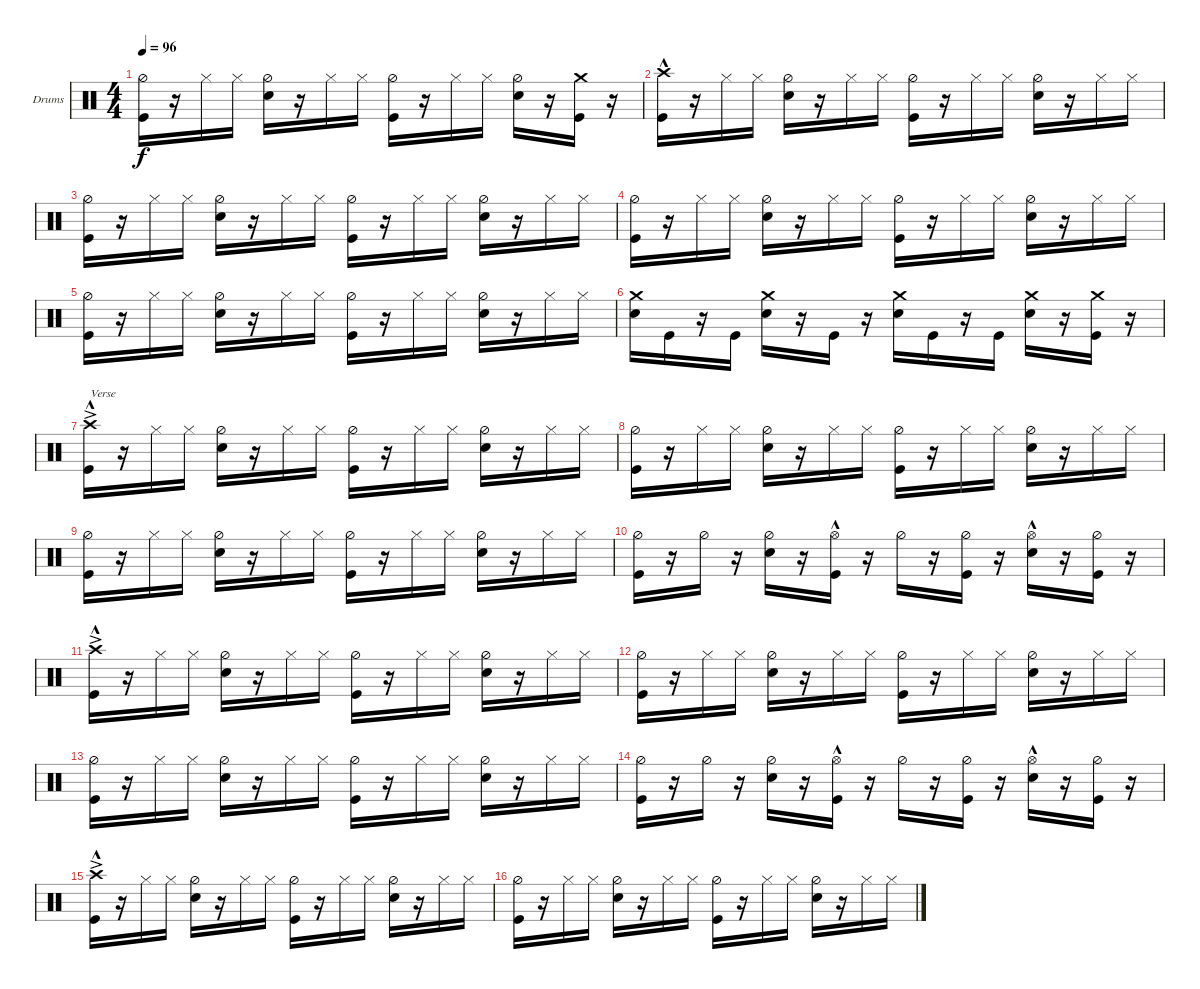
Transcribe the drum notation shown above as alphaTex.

\defaultSystemsLayout 4
\bracketExtendMode groupsimilarinstruments
\firstSystemTrackNameOrientation horizontal
\otherSystemsTrackNameOrientation horizontal
\track ("Stefan Schwarzmann" "Drums") {instrument percussion}
\staff {score}
\articulation defaults
\ts (4 4)
\tempo 96
\clef neutral
\ks c
("Kick (hit)" "Hi-Hat (half)").16{dy f} r.16 "Hi-Hat (closed)".16 "Hi-Hat (closed)".16 ("Snare (hit) 2" "Hi-Hat (half)").16 r.16 "Hi-Hat (closed)".16 "Hi-Hat (closed)".16 ("Kick (hit)" "Hi-Hat (half)").16 r.16 "Hi-Hat (closed)".16 "Hi-Hat (closed)".16 ("Snare (hit) 2" "Hi-Hat (half)").16 r.16 ("Crash medium (hit)" "Kick (hit)").16 r.16 |
("Kick (hit)" "Crash high (hit)"{hac}).16 r.16 "Hi-Hat (closed)".16 "Hi-Hat (closed)".16 ("Snare (hit) 2" "Hi-Hat (half)").16 r.16 "Hi-Hat (closed)".16 "Hi-Hat (closed)".16 ("Kick (hit)" "Hi-Hat (half)").16 r.16 "Hi-Hat (closed)".16 "Hi-Hat (closed)".16 ("Snare (hit) 2" "Hi-Hat (half)").16 r.16 "Hi-Hat (closed)".16 "Hi-Hat (closed)".16 |
("Kick (hit)" "Hi-Hat (half)").16 r.16 "Hi-Hat (closed)".16 "Hi-Hat (closed)".16 ("Snare (hit) 2" "Hi-Hat (half)").16 r.16 "Hi-Hat (closed)".16 "Hi-Hat (closed)".16 ("Kick (hit)" "Hi-Hat (half)").16 r.16 "Hi-Hat (closed)".16 "Hi-Hat (closed)".16 ("Snare (hit) 2" "Hi-Hat (half)").16 r.16 "Hi-Hat (closed)".16 "Hi-Hat (closed)".16 |
("Kick (hit)" "Hi-Hat (half)").16 r.16 "Hi-Hat (closed)".16 "Hi-Hat (closed)".16 ("Snare (hit) 2" "Hi-Hat (half)").16 r.16 "Hi-Hat (closed)".16 "Hi-Hat (closed)".16 ("Kick (hit)" "Hi-Hat (half)").16 r.16 "Hi-Hat (closed)".16 "Hi-Hat (closed)".16 ("Snare (hit) 2" "Hi-Hat (half)").16 r.16 "Hi-Hat (closed)".16 "Hi-Hat (closed)".16 |
("Kick (hit)" "Hi-Hat (half)").16 r.16 "Hi-Hat (closed)".16 "Hi-Hat (closed)".16 ("Snare (hit) 2" "Hi-Hat (half)").16 r.16 "Hi-Hat (closed)".16 "Hi-Hat (closed)".16 ("Kick (hit)" "Hi-Hat (half)").16 r.16 "Hi-Hat (closed)".16 "Hi-Hat (closed)".16 ("Snare (hit) 2" "Hi-Hat (half)").16 r.16 "Hi-Hat (closed)".16 "Hi-Hat (closed)".16 |
("Snare (hit) 2" "Crash medium (hit)").16 "Kick (hit)".16 r.16 "Kick (hit)".16 ("Snare (hit) 2" "Crash medium (hit)").16 r.16 "Kick (hit)".16 r.16 ("Snare (hit) 2" "Crash medium (hit)").16 "Kick (hit)".16 r.16 "Kick (hit)".16 ("Snare (hit) 2" "Crash medium (hit)").16 r.16 ("Kick (hit)" "Crash medium (hit)").16 r.16 |
("Kick (hit)"{ac} "Crash high (hit)"{hac}).16{txt "Verse"} r.16 "Hi-Hat (closed)".16 "Hi-Hat (closed)".16 ("Snare (hit) 2" "Hi-Hat (half)").16 r.16 "Hi-Hat (closed)".16 "Hi-Hat (closed)".16 ("Kick (hit)" "Hi-Hat (half)").16 r.16 "Hi-Hat (closed)".16 "Hi-Hat (closed)".16 ("Snare (hit) 2" "Hi-Hat (half)").16 r.16 "Hi-Hat (closed)".16 "Hi-Hat (closed)".16 |
("Kick (hit)" "Hi-Hat (half)").16 r.16 "Hi-Hat (closed)".16 "Hi-Hat (closed)".16 ("Snare (hit) 2" "Hi-Hat (half)").16 r.16 "Hi-Hat (closed)".16 "Hi-Hat (closed)".16 ("Kick (hit)" "Hi-Hat (half)").16 r.16 "Hi-Hat (closed)".16 "Hi-Hat (closed)".16 ("Snare (hit) 2" "Hi-Hat (half)").16 r.16 "Hi-Hat (closed)".16 "Hi-Hat (closed)".16 |
("Kick (hit)" "Hi-Hat (half)").16 r.16 "Hi-Hat (closed)".16 "Hi-Hat (closed)".16 ("Snare (hit) 2" "Hi-Hat (half)").16 r.16 "Hi-Hat (closed)".16 "Hi-Hat (closed)".16 ("Kick (hit)" "Hi-Hat (half)").16 r.16 "Hi-Hat (closed)".16 "Hi-Hat (closed)".16 ("Snare (hit) 2" "Hi-Hat (half)").16 r.16 "Hi-Hat (closed)".16 "Hi-Hat (closed)".16 |
("Kick (hit)" "Hi-Hat (half)").16 r.16 "Hi-Hat (half)".16 r.16 ("Snare (hit) 2" "Hi-Hat (half)").16 r.16 ("Kick (hit)" "Hi-Hat (open)"{hac}).16 r.16 "Hi-Hat (half)".16 r.16 ("Hi-Hat (half)" "Kick (hit)").16 r.16 ("Snare (hit) 2" "Hi-Hat (open)"{hac}).16 r.16 ("Hi-Hat (half)" "Kick (hit)").16 r.16 |
("Kick (hit)"{ac} "Crash high (hit)"{hac}).16 r.16 "Hi-Hat (closed)".16 "Hi-Hat (closed)".16 ("Snare (hit) 2" "Hi-Hat (half)").16 r.16 "Hi-Hat (closed)".16 "Hi-Hat (closed)".16 ("Kick (hit)" "Hi-Hat (half)").16 r.16 "Hi-Hat (closed)".16 "Hi-Hat (closed)".16 ("Snare (hit) 2" "Hi-Hat (half)").16 r.16 "Hi-Hat (closed)".16 "Hi-Hat (closed)".16 |
("Kick (hit)" "Hi-Hat (half)").16 r.16 "Hi-Hat (closed)".16 "Hi-Hat (closed)".16 ("Snare (hit) 2" "Hi-Hat (half)").16 r.16 "Hi-Hat (closed)".16 "Hi-Hat (closed)".16 ("Kick (hit)" "Hi-Hat (half)").16 r.16 "Hi-Hat (closed)".16 "Hi-Hat (closed)".16 ("Snare (hit) 2" "Hi-Hat (half)").16 r.16 "Hi-Hat (closed)".16 "Hi-Hat (closed)".16 |
("Kick (hit)" "Hi-Hat (half)").16 r.16 "Hi-Hat (closed)".16 "Hi-Hat (closed)".16 ("Snare (hit) 2" "Hi-Hat (half)").16 r.16 "Hi-Hat (closed)".16 "Hi-Hat (closed)".16 ("Kick (hit)" "Hi-Hat (half)").16 r.16 "Hi-Hat (closed)".16 "Hi-Hat (closed)".16 ("Snare (hit) 2" "Hi-Hat (half)").16 r.16 "Hi-Hat (closed)".16 "Hi-Hat (closed)".16 |
("Kick (hit)" "Hi-Hat (half)").16 r.16 "Hi-Hat (half)".16 r.16 ("Snare (hit) 2" "Hi-Hat (half)").16 r.16 ("Kick (hit)" "Hi-Hat (open)"{hac}).16 r.16 "Hi-Hat (half)".16 r.16 ("Hi-Hat (half)" "Kick (hit)").16 r.16 ("Snare (hit) 2" "Hi-Hat (open)"{hac}).16 r.16 ("Hi-Hat (half)" "Kick (hit)").16 r.16 |
("Kick (hit)"{ac} "Crash high (hit)"{hac}).16 r.16 "Hi-Hat (closed)".16 "Hi-Hat (closed)".16 ("Snare (hit) 2" "Hi-Hat (half)").16 r.16 "Hi-Hat (closed)".16 "Hi-Hat (closed)".16 ("Kick (hit)" "Hi-Hat (half)").16 r.16 "Hi-Hat (closed)".16 "Hi-Hat (closed)".16 ("Snare (hit) 2" "Hi-Hat (half)").16 r.16 "Hi-Hat (closed)".16 "Hi-Hat (closed)".16 |
("Kick (hit)" "Hi-Hat (half)").16 r.16 "Hi-Hat (closed)".16 "Hi-Hat (closed)".16 ("Snare (hit) 2" "Hi-Hat (half)").16 r.16 "Hi-Hat (closed)".16 "Hi-Hat (closed)".16 ("Kick (hit)" "Hi-Hat (half)").16 r.16 "Hi-Hat (closed)".16 "Hi-Hat (closed)".16 ("Snare (hit) 2" "Hi-Hat (half)").16 r.16 "Hi-Hat (closed)".16 "Hi-Hat (closed)".16
